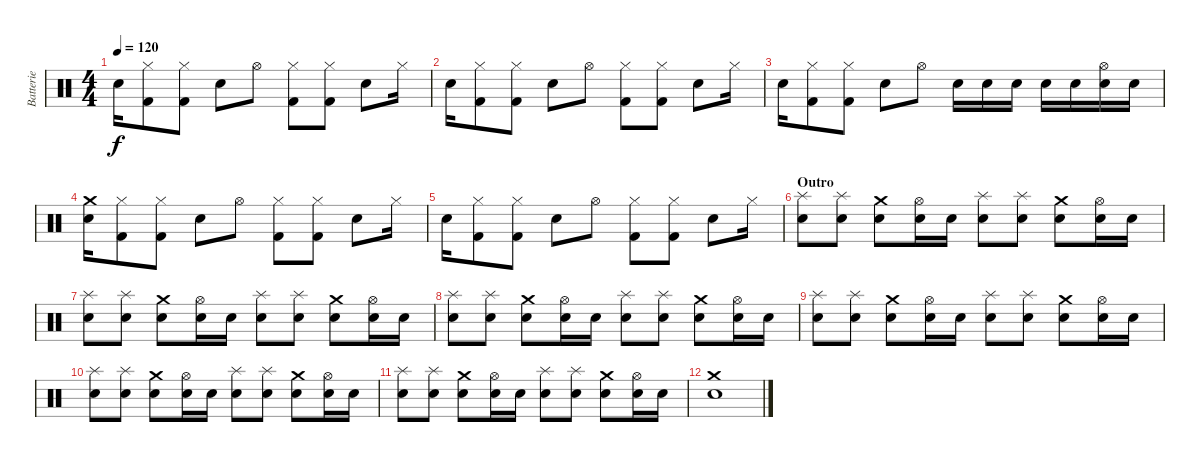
\track ("Batterie" "Batterie") {instrument percussion}
\staff {score}
\articulation defaults
\ts (4 4)
\tempo 120
\clef neutral
\ks c "Snare (hit) 2".16{dy f}
("Hi-Hat (closed)" "Kick (hit) 2").8 ("Hi-Hat (closed)" "Kick (hit) 2").8 "Snare (hit) 2".8 "Hi-Hat (open)".8 ("Hi-Hat (closed)" "Kick (hit) 2").8 ("Hi-Hat (closed)" "Kick (hit) 2").8 "Snare (hit) 2".8 "Hi-Hat (closed)".16 |
"Snare (hit) 2".16 ("Hi-Hat (closed)" "Kick (hit) 2").8 ("Hi-Hat (closed)" "Kick (hit) 2").8 "Snare (hit) 2".8 "Hi-Hat (open)".8 ("Hi-Hat (closed)" "Kick (hit) 2").8 ("Hi-Hat (closed)" "Kick (hit) 2").8 "Snare (hit) 2".8 "Hi-Hat (closed)".16 |
"Snare (hit) 2".16 ("Hi-Hat (closed)" "Kick (hit) 2").8 ("Hi-Hat (closed)" "Kick (hit) 2").8 "Snare (hit) 2".8 "Hi-Hat (open)".8 "Snare (hit) 2".16 "Snare (hit) 2".16 "Snare (hit) 2".16 "Snare (hit) 2".16 "Snare (hit) 2".16 ("Hi-Hat (open)" "Snare (hit) 2").16 "Snare (hit) 2".16 |
("Crash medium (hit)" "Snare (hit) 2").16 ("Hi-Hat (closed)" "Kick (hit) 2").8 ("Hi-Hat (closed)" "Kick (hit) 2").8 "Snare (hit) 2".8 "Hi-Hat (open)".8 ("Hi-Hat (closed)" "Kick (hit) 2").8 ("Hi-Hat (closed)" "Kick (hit) 2").8 "Snare (hit) 2".8 "Hi-Hat (closed)".16 |
"Snare (hit) 2".16 ("Hi-Hat (closed)" "Kick (hit) 2").8 ("Hi-Hat (closed)" "Kick (hit) 2").8 "Snare (hit) 2".8 "Hi-Hat (open)".8 ("Hi-Hat (closed)" "Kick (hit) 2").8 ("Hi-Hat (closed)" "Kick (hit) 2").8 "Snare (hit) 2".8 "Hi-Hat (closed)".16 |
\section ("" "Outro")
("Splash (hit)" "Snare (hit) 2").8 ("Splash (hit)" "Snare (hit) 2").8 ("Crash medium (hit)" "Snare (hit) 2").8 ("Hi-Hat (open)" "Snare (hit) 2").16 "Snare (hit) 2".16 ("Splash (hit)" "Snare (hit) 2").8 ("Splash (hit)" "Snare (hit) 2").8 ("Crash medium (hit)" "Snare (hit) 2").8 ("Hi-Hat (open)" "Snare (hit) 2").16 "Snare (hit) 2".16 |
("Splash (hit)" "Snare (hit) 2").8 ("Splash (hit)" "Snare (hit) 2").8 ("Crash medium (hit)" "Snare (hit) 2").8 ("Hi-Hat (open)" "Snare (hit) 2").16 "Snare (hit) 2".16 ("Splash (hit)" "Snare (hit) 2").8 ("Splash (hit)" "Snare (hit) 2").8 ("Crash medium (hit)" "Snare (hit) 2").8 ("Hi-Hat (open)" "Snare (hit) 2").16 "Snare (hit) 2".16 |
("Splash (hit)" "Snare (hit) 2").8 ("Splash (hit)" "Snare (hit) 2").8 ("Crash medium (hit)" "Snare (hit) 2").8 ("Hi-Hat (open)" "Snare (hit) 2").16 "Snare (hit) 2".16 ("Splash (hit)" "Snare (hit) 2").8 ("Splash (hit)" "Snare (hit) 2").8 ("Crash medium (hit)" "Snare (hit) 2").8 ("Hi-Hat (open)" "Snare (hit) 2").16 "Snare (hit) 2".16 |
("Splash (hit)" "Snare (hit) 2").8 ("Splash (hit)" "Snare (hit) 2").8 ("Crash medium (hit)" "Snare (hit) 2").8 ("Hi-Hat (open)" "Snare (hit) 2").16 "Snare (hit) 2".16 ("Splash (hit)" "Snare (hit) 2").8 ("Splash (hit)" "Snare (hit) 2").8 ("Crash medium (hit)" "Snare (hit) 2").8 ("Hi-Hat (open)" "Snare (hit) 2").16 "Snare (hit) 2".16 |
("Splash (hit)" "Snare (hit) 2").8 ("Splash (hit)" "Snare (hit) 2").8 ("Crash medium (hit)" "Snare (hit) 2").8 ("Hi-Hat (open)" "Snare (hit) 2").16 "Snare (hit) 2".16 ("Splash (hit)" "Snare (hit) 2").8 ("Splash (hit)" "Snare (hit) 2").8 ("Crash medium (hit)" "Snare (hit) 2").8 ("Hi-Hat (open)" "Snare (hit) 2").16 "Snare (hit) 2".16 |
("Splash (hit)" "Snare (hit) 2").8 ("Splash (hit)" "Snare (hit) 2").8 ("Crash medium (hit)" "Snare (hit) 2").8 ("Hi-Hat (open)" "Snare (hit) 2").16 "Snare (hit) 2".16 ("Splash (hit)" "Snare (hit) 2").8 ("Splash (hit)" "Snare (hit) 2").8 ("Crash medium (hit)" "Snare (hit) 2").8 ("Hi-Hat (open)" "Snare (hit) 2").16 "Snare (hit) 2".16 |
("Crash medium (hit)" "Snare (hit) 2").1
